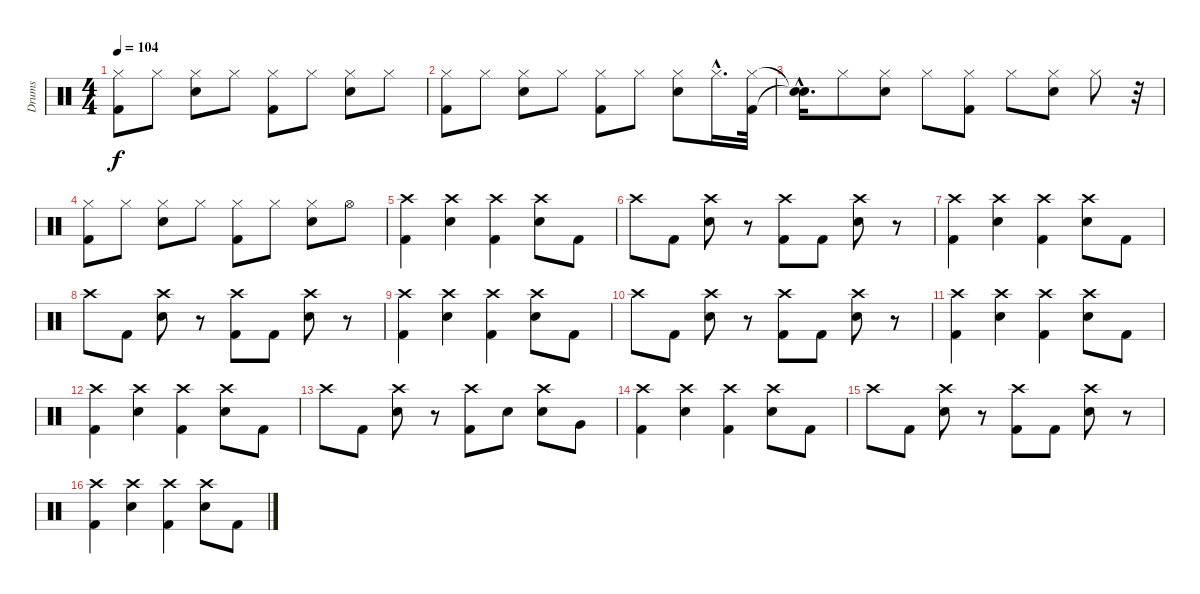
\track ("Drums" "Drums") {instrument percussion}
\staff {score}
\articulation defaults
\ts (4 4)
\tempo 104
\clef neutral
\ks c
("Kick (hit) 2" "Hi-Hat (closed)").8{dy f} "Hi-Hat (closed)".8 ("Electric Snare (hit)" "Hi-Hat (closed)").8 "Hi-Hat (closed)".8 ("Kick (hit) 2" "Hi-Hat (closed)").8 "Hi-Hat (closed)".8 ("Electric Snare (hit)" "Hi-Hat (closed)").8 "Hi-Hat (closed)".8 |
("Kick (hit) 2" "Hi-Hat (closed)").8 "Hi-Hat (closed)".8 ("Electric Snare (hit)" "Hi-Hat (closed)").8 "Hi-Hat (closed)".8 ("Kick (hit) 2" "Hi-Hat (closed)").8 "Hi-Hat (closed)".8 ("Electric Snare (hit)" "Hi-Hat (closed)").8 "Hi-Hat (closed)"{hac}.16{d} ("Kick (hit) 2" "Hi-Hat (closed)").32 |
("Snare (hit)"{hac t} "Snare (hit)"{hac t}).16{d} "Hi-Hat (closed)".8 ("Electric Snare (hit)" "Hi-Hat (closed)").8 "Hi-Hat (closed)".8 ("Kick (hit) 2" "Hi-Hat (closed)").8 "Hi-Hat (closed)".8 ("Electric Snare (hit)" "Hi-Hat (closed)").8 "Hi-Hat (closed)".8 r.32 |
("Kick (hit) 2" "Hi-Hat (closed)").8 "Hi-Hat (closed)".8 ("Electric Snare (hit)" "Hi-Hat (closed)").8 "Hi-Hat (closed)".8 ("Kick (hit) 2" "Hi-Hat (closed)").8 "Hi-Hat (closed)".8 ("Electric Snare (hit)" "Hi-Hat (closed)").8 "Hi-Hat (open)".8 |
("Crash high (hit)" "Kick (hit) 2").4 ("Crash high (hit)" "Electric Snare (hit)").4 ("Crash high (hit)" "Kick (hit) 2").4 ("Crash high (hit)" "Electric Snare (hit)").8 "Kick (hit) 2".8 |
"Crash high (hit)".8 "Kick (hit) 2".8 ("Crash high (hit)" "Electric Snare (hit)").8 r.8 ("Crash high (hit)" "Kick (hit) 2").8 "Kick (hit) 2".8 ("Crash high (hit)" "Electric Snare (hit)").8 r.8 |
("Crash high (hit)" "Kick (hit) 2").4 ("Crash high (hit)" "Electric Snare (hit)").4 ("Crash high (hit)" "Kick (hit) 2").4 ("Crash high (hit)" "Electric Snare (hit)").8 "Kick (hit) 2".8 |
"Crash high (hit)".8 "Kick (hit) 2".8 ("Crash high (hit)" "Electric Snare (hit)").8 r.8 ("Crash high (hit)" "Kick (hit) 2").8 "Kick (hit) 2".8 ("Crash high (hit)" "Electric Snare (hit)").8 r.8 |
("Crash high (hit)" "Kick (hit) 2").4 ("Crash high (hit)" "Electric Snare (hit)").4 ("Crash high (hit)" "Kick (hit) 2").4 ("Crash high (hit)" "Electric Snare (hit)").8 "Kick (hit) 2".8 |
"Crash high (hit)".8 "Kick (hit) 2".8 ("Crash high (hit)" "Electric Snare (hit)").8 r.8 ("Crash high (hit)" "Kick (hit) 2").8 "Kick (hit) 2".8 ("Crash high (hit)" "Electric Snare (hit)").8 r.8 |
("Crash high (hit)" "Kick (hit) 2").4 ("Crash high (hit)" "Electric Snare (hit)").4 ("Crash high (hit)" "Kick (hit) 2").4 ("Crash high (hit)" "Electric Snare (hit)").8 "Kick (hit) 2".8 |
("Crash high (hit)" "Kick (hit) 2").4 ("Crash high (hit)" "Electric Snare (hit)").4 ("Crash high (hit)" "Kick (hit) 2").4 ("Crash high (hit)" "Electric Snare (hit)").8 "Kick (hit) 2".8 |
"Crash high (hit)".8 "Kick (hit) 2".8 ("Crash high (hit)" "Electric Snare (hit)").8 r.8 ("Crash high (hit)" "Kick (hit) 2").8 "Electric Snare (hit)".8 ("Crash high (hit)" "Electric Snare (hit)").8 "Very Low Tom (hit)".8 |
("Crash high (hit)" "Kick (hit) 2").4 ("Crash high (hit)" "Electric Snare (hit)").4 ("Crash high (hit)" "Kick (hit) 2").4 ("Crash high (hit)" "Electric Snare (hit)").8 "Kick (hit) 2".8 |
"Crash high (hit)".8 "Kick (hit) 2".8 ("Crash high (hit)" "Electric Snare (hit)").8 r.8 ("Crash high (hit)" "Kick (hit) 2").8 "Kick (hit) 2".8 ("Crash high (hit)" "Electric Snare (hit)").8 r.8 |
("Crash high (hit)" "Kick (hit) 2").4 ("Crash high (hit)" "Electric Snare (hit)").4 ("Crash high (hit)" "Kick (hit) 2").4 ("Crash high (hit)" "Electric Snare (hit)").8 "Kick (hit) 2".8
